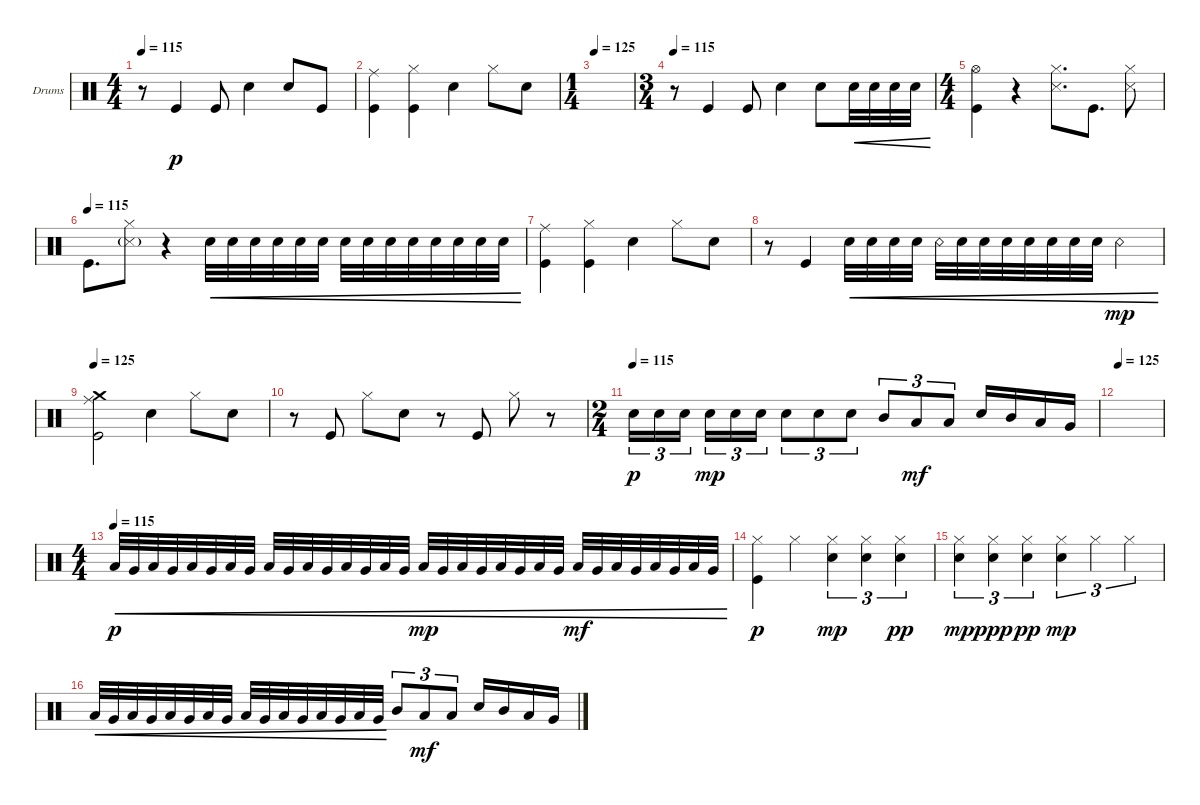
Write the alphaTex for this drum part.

\defaultSystemsLayout 4
\bracketExtendMode groupsimilarinstruments
\firstSystemTrackNameOrientation horizontal
\otherSystemsTrackNameOrientation horizontal
\track ("Drumkit" "Drums") {instrument percussion}
\staff {score}
\articulation defaults
\ts (4 4)
\tempo 115
\clef neutral
\ks c
r.8{dy p} "Kick (hit)".4 "Kick (hit)".8 "Snare (hit) 2".4 "Snare (hit) 2".8 "Kick (hit)".8 |
("Kick (hit)" "Ride (middle)").4 ("Kick (hit)" "Hi-Hat (closed)").4 "Snare (hit) 2".4 "Hi-Hat (closed)".8 "Snare (hit) 2".8 |
\ts (1 4)
\tempo 125
|
\ts (3 4)
\tempo 115
r.8 "Kick (hit)".4 "Kick (hit)".8 "Snare (hit) 2".4 "Snare (hit) 2".8 "Snare (hit) 2".32{cre} "Snare (hit) 2".32{cre} "Snare (hit) 2".32{cre} "Snare (hit) 2".32{cre} |
\ts (4 4)
("Kick (hit)" "Hi-Hat (open)").4 r.4 ("Snare (side stick) 3" "Hi-Hat (closed)").8{d} "Kick (hit)".8{d} ("Snare (side stick) 3" "Hi-Hat (closed)").8 |
\tempo (115)
"Kick (hit)".8{d} ("Snare (side stick) 3"{g} "Hi-Hat (closed)").8 r.4 "Snare (hit) 2".32{cre} "Snare (hit) 2".32{cre} "Snare (hit) 2".32{cre} "Snare (hit) 2".32{cre} "Snare (hit) 2".32{cre} "Snare (hit) 2".32{cre} "Snare (hit) 2".32{cre} "Snare (hit) 2".32{cre} "Snare (hit) 2".32{cre} "Snare (hit) 2".32{cre} "Snare (hit) 2".32{cre} "Snare (hit) 2".32{cre} "Snare (hit) 2".32{cre} "Snare (hit) 2".32{cre} |
("Kick (hit)" "Ride (middle)").4 ("Kick (hit)" "Hi-Hat (closed)").4 "Snare (hit) 2".4 "Hi-Hat (closed)".8 "Snare (hit) 2".8 |
r.8 "Kick (hit)".4 "Snare (hit) 2".32{cre} "Snare (hit) 2".32{cre} "Snare (hit) 2".32{cre} "Snare (hit) 2".32{cre} "Snare (rim shot)".32{cre} "Snare (hit) 2".32{cre} "Snare (hit) 2".32{cre} "Snare (hit) 2".32{cre} "Snare (hit) 2".32{cre} "Snare (hit) 2".32{cre} "Snare (hit) 2".32{cre} "Snare (hit) 2".32{cre} "Snare (rim shot)".4{cre dy mp} |
\tempo 125
("Kick (hit)" "Ride (middle)" "Crash medium (hit)").2 "Snare (hit) 2".4 "Hi-Hat (closed)".8 "Snare (hit) 2".8 |
r.8 "Kick (hit)".8 "Hi-Hat (closed)".8 "Snare (hit) 2".8 r.8 "Kick (hit)".8 "Hi-Hat (closed)".8 r.8 |
\ts (2 4)
\tempo (115)
"Snare (hit) 2".16{tu (3 2) dy p} "Snare (hit) 2".16{tu (3 2)} "Snare (hit) 2".16{tu (3 2)} "Snare (hit) 2".16{tu (3 2) dy mp} "Snare (hit) 2".16{tu (3 2)} "Snare (hit) 2".16{tu (3 2)} "Snare (hit) 2".8{tu (3 2)} "Snare (hit) 2".8{tu (3 2)} "Snare (hit) 2".8{tu (3 2)} "Mid Tom (hit)".8{tu (3 2)} "Low Tom (hit)".8{tu (3 2) dy mf} "Low Tom (hit)".8{tu (3 2)} "Snare (hit) 2".16 "Mid Tom (hit)".16 "Low Tom (hit)".16 "Very Low Tom (hit)".16 |
\tempo 125
|
\ts (4 4)
\tempo (115)
"Low Tom (hit)".32{cre dy p} "Very Low Tom (hit)".32{cre} "Low Tom (hit)".32{cre} "Very Low Tom (hit)".32{cre} "Low Tom (hit)".32{cre} "Very Low Tom (hit)".32{cre} "Low Tom (hit)".32{cre} "Very Low Tom (hit)".32{cre} "Low Tom (hit)".32{cre} "Very Low Tom (hit)".32{cre} "Low Tom (hit)".32{cre} "Very Low Tom (hit)".32{cre} "Low Tom (hit)".32{cre} "Very Low Tom (hit)".32{cre} "Low Tom (hit)".32{cre} "Very Low Tom (hit)".32{cre} "Low Tom (hit)".32{cre dy mp} "Very Low Tom (hit)".32{cre} "Low Tom (hit)".32{cre} "Very Low Tom (hit)".32{cre} "Low Tom (hit)".32{cre} "Very Low Tom (hit)".32{cre} "Low Tom (hit)".32{cre} "Very Low Tom (hit)".32{cre} "Low Tom (hit)".32{cre dy mf} "Very Low Tom (hit)".32{cre} "Low Tom (hit)".32{cre} "Very Low Tom (hit)".32{cre} "Low Tom (hit)".32{cre} "Very Low Tom (hit)".32{cre} "Low Tom (hit)".32{cre} "Very Low Tom (hit)".32{cre} |
("Kick (hit)" "Hi-Hat (closed)").4{dy p} "Hi-Hat (closed)".4 ("Snare (hit) 2" "Hi-Hat (closed)").4{tu (3 2) dy mp} ("Snare (hit) 2" "Hi-Hat (closed)").4{tu (3 2)} ("Snare (hit) 2" "Hi-Hat (closed)").4{tu (3 2) dy pp} |
("Snare (hit) 2" "Hi-Hat (closed)").4{tu (3 2) dy mp} ("Snare (hit) 2" "Hi-Hat (closed)").4{tu (3 2) dy ppp} ("Snare (hit) 2" "Hi-Hat (closed)").4{tu (3 2) dy pp} ("Snare (hit) 2" "Hi-Hat (closed)").4{tu (3 2) dy mp} "Hi-Hat (closed)".4{tu (3 2)} "Hi-Hat (closed)".4{tu (3 2)} |
"Low Tom (hit)".32{cre} "Very Low Tom (hit)".32{cre} "Low Tom (hit)".32{cre} "Very Low Tom (hit)".32{cre} "Low Tom (hit)".32{cre} "Very Low Tom (hit)".32{cre} "Low Tom (hit)".32{cre} "Very Low Tom (hit)".32{cre} "Low Tom (hit)".32{cre} "Very Low Tom (hit)".32{cre} "Low Tom (hit)".32{cre} "Very Low Tom (hit)".32{cre} "Low Tom (hit)".32{cre} "Very Low Tom (hit)".32{cre} "Low Tom (hit)".32{cre} "Very Low Tom (hit)".32{cre} "Mid Tom (hit)".8{tu (3 2)} "Low Tom (hit)".8{tu (3 2) dy mf} "Low Tom (hit)".8{tu (3 2)} "Snare (hit) 2".16 "Mid Tom (hit)".16 "Low Tom (hit)".16 "Very Low Tom (hit)".16
